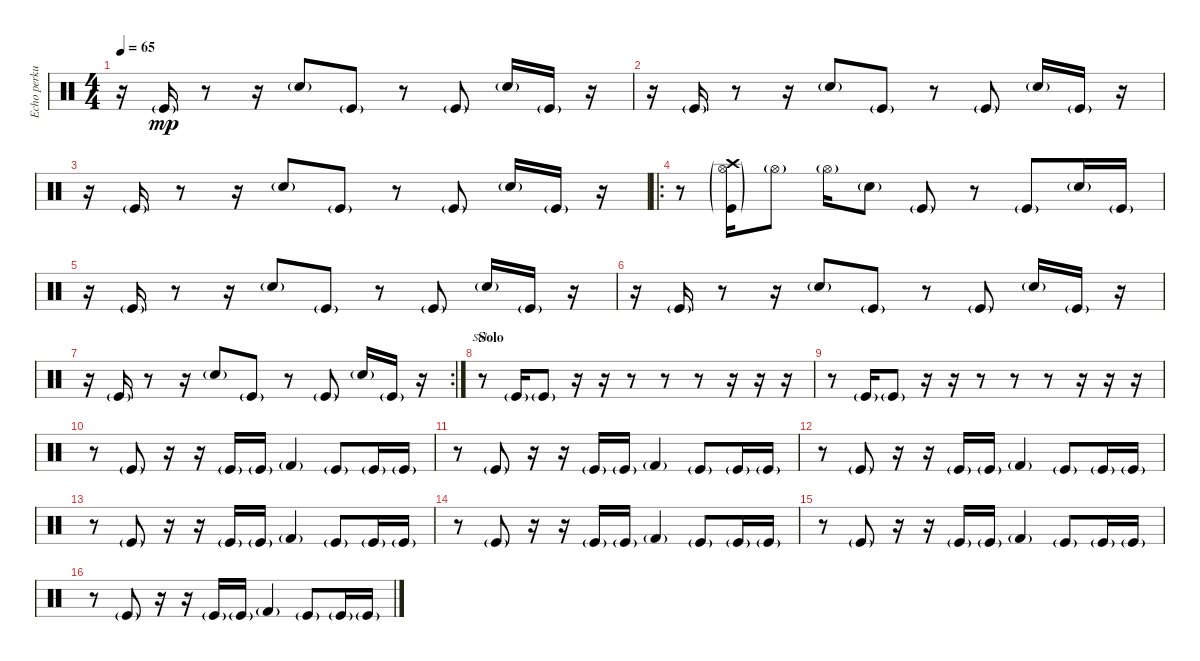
\track ("Echo perkusji 2" "Echo perku") {instrument percussion}
\staff {score}
\articulation defaults
\chord ("Solo") {firstfret 13}
\ts (4 4)
\tempo 65
\clef neutral
\ks c
r.16{dy mp} "Kick (hit)"{g}.16 r.8 r.16 "Snare (hit) 2"{g}.8 "Kick (hit)"{g}.8 r.8 "Kick (hit)"{g}.8 "Snare (hit) 2"{g}.16 "Kick (hit)"{g}.16 r.16 |
r.16 "Kick (hit)"{g}.16 r.8 r.16 "Snare (hit) 2"{g}.8 "Kick (hit)"{g}.8 r.8 "Kick (hit)"{g}.8 "Snare (hit) 2"{g}.16 "Kick (hit)"{g}.16 r.16 |
r.16 "Kick (hit)"{g}.16 r.8 r.16 "Snare (hit) 2"{g}.8 "Kick (hit)"{g}.8 r.8 "Kick (hit)"{g}.8 "Snare (hit) 2"{g}.16 "Kick (hit)"{g}.16 r.16 |
\ro
r.8 ("Kick (hit)"{g} "Hi-Hat (open)"{g} "Crash high (hit)"{g}).16 "Hi-Hat (open)"{g}.8 "Hi-Hat (open)"{g}.16 "Snare (hit) 2"{g}.8 "Kick (hit)"{g}.8 r.8 "Kick (hit)"{g}.8 "Snare (hit) 2"{g}.16 "Kick (hit)"{g}.16 |
r.16 "Kick (hit)"{g}.16 r.8 r.16 "Snare (hit) 2"{g}.8 "Kick (hit)"{g}.8 r.8 "Kick (hit)"{g}.8 "Snare (hit) 2"{g}.16 "Kick (hit)"{g}.16 r.16 |
r.16 "Kick (hit)"{g}.16 r.8 r.16 "Snare (hit) 2"{g}.8 "Kick (hit)"{g}.8 r.8 "Kick (hit)"{g}.8 "Snare (hit) 2"{g}.16 "Kick (hit)"{g}.16 r.16 |
\rc 2
r.16 "Kick (hit)"{g}.16 r.8 r.16 "Snare (hit) 2"{g}.8 "Kick (hit)"{g}.8 r.8 "Kick (hit)"{g}.8 "Snare (hit) 2"{g}.16 "Kick (hit)"{g}.16 r.16 |
\section ("" "Solo")
r.8{ch "Solo" volume 16} "Kick (hit)"{g}.16 "Kick (hit)"{g}.8 r.16 r.16 r.8 r.8 r.8 r.16 r.16 r.16 |
r.8 "Kick (hit)"{g}.16 "Kick (hit)"{g}.8 r.16 r.16 r.8 r.8 r.8 r.16 r.16 r.16 |
r.8 "Kick (hit)"{g}.8 r.16 r.16 "Kick (hit)"{g}.16 "Kick (hit)"{g}.16 "Kick (hit) 2"{g}.4 "Kick (hit)"{g}.8 "Kick (hit)"{g}.16 "Kick (hit)"{g}.16 |
r.8 "Kick (hit)"{g}.8 r.16 r.16 "Kick (hit)"{g}.16 "Kick (hit)"{g}.16 "Kick (hit) 2"{g}.4 "Kick (hit)"{g}.8 "Kick (hit)"{g}.16 "Kick (hit)"{g}.16 |
r.8 "Kick (hit)"{g}.8 r.16 r.16 "Kick (hit)"{g}.16 "Kick (hit)"{g}.16 "Kick (hit) 2"{g}.4 "Kick (hit)"{g}.8 "Kick (hit)"{g}.16 "Kick (hit)"{g}.16 |
r.8 "Kick (hit)"{g}.8 r.16 r.16 "Kick (hit)"{g}.16 "Kick (hit)"{g}.16 "Kick (hit) 2"{g}.4 "Kick (hit)"{g}.8 "Kick (hit)"{g}.16 "Kick (hit)"{g}.16 |
r.8 "Kick (hit)"{g}.8 r.16 r.16 "Kick (hit)"{g}.16 "Kick (hit)"{g}.16 "Kick (hit) 2"{g}.4 "Kick (hit)"{g}.8 "Kick (hit)"{g}.16 "Kick (hit)"{g}.16 |
r.8 "Kick (hit)"{g}.8 r.16 r.16 "Kick (hit)"{g}.16 "Kick (hit)"{g}.16 "Kick (hit) 2"{g}.4 "Kick (hit)"{g}.8 "Kick (hit)"{g}.16 "Kick (hit)"{g}.16 |
r.8 "Kick (hit)"{g}.8 r.16 r.16 "Kick (hit)"{g}.16 "Kick (hit)"{g}.16 "Kick (hit) 2"{g}.4 "Kick (hit)"{g}.8 "Kick (hit)"{g}.16 "Kick (hit)"{g}.16
